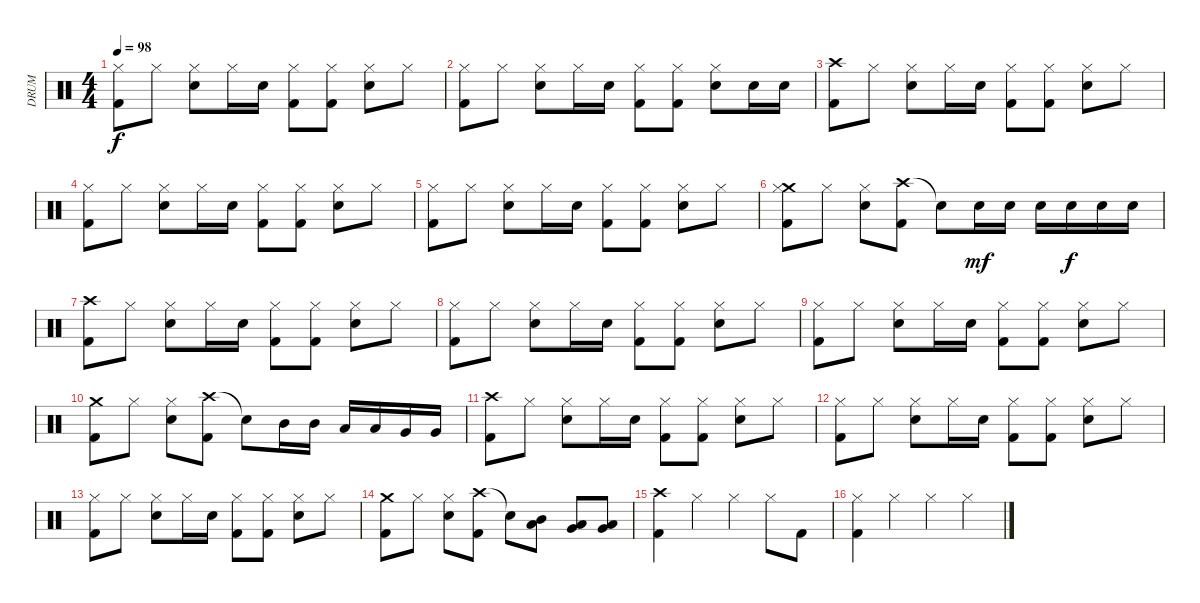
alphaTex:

\track ("DRUM" "DRUM") {instrument percussion}
\staff {score}
\articulation defaults
\ts (4 4)
\tempo 98
\clef neutral
\ks c
("Hi-Hat (closed)" "Kick (hit) 2").8{dy f} "Hi-Hat (closed)".8 ("Snare (hit) 2" "Hi-Hat (closed)").8 "Hi-Hat (closed)".16 "Snare (hit) 2".16 ("Hi-Hat (closed)" "Kick (hit) 2").8 ("Hi-Hat (closed)" "Kick (hit) 2").8 ("Snare (hit) 2" "Hi-Hat (closed)").8 "Hi-Hat (closed)".8 |
("Hi-Hat (closed)" "Kick (hit) 2").8 "Hi-Hat (closed)".8 ("Snare (hit) 2" "Hi-Hat (closed)").8 "Hi-Hat (closed)".16 "Snare (hit) 2".16 ("Hi-Hat (closed)" "Kick (hit) 2").8 ("Hi-Hat (closed)" "Kick (hit) 2").8 ("Snare (hit) 2" "Hi-Hat (closed)").8 "Snare (hit) 2".16 "Snare (hit) 2".16 |
("Crash high (hit)" "Kick (hit) 2").8 "Hi-Hat (closed)".8 ("Snare (hit) 2" "Hi-Hat (closed)").8 "Hi-Hat (closed)".16 "Snare (hit) 2".16 ("Hi-Hat (closed)" "Kick (hit) 2").8 ("Hi-Hat (closed)" "Kick (hit) 2").8 ("Snare (hit) 2" "Hi-Hat (closed)").8 "Hi-Hat (closed)".8 |
("Hi-Hat (closed)" "Kick (hit) 2").8 "Hi-Hat (closed)".8 ("Snare (hit) 2" "Hi-Hat (closed)").8 "Hi-Hat (closed)".16 "Snare (hit) 2".16 ("Hi-Hat (closed)" "Kick (hit) 2").8 ("Hi-Hat (closed)" "Kick (hit) 2").8 ("Snare (hit) 2" "Hi-Hat (closed)").8 "Hi-Hat (closed)".8 |
("Hi-Hat (closed)" "Kick (hit) 2").8 "Hi-Hat (closed)".8 ("Snare (hit) 2" "Hi-Hat (closed)").8 "Hi-Hat (closed)".16 "Snare (hit) 2".16 ("Hi-Hat (closed)" "Kick (hit) 2").8 ("Hi-Hat (closed)" "Kick (hit) 2").8 ("Snare (hit) 2" "Hi-Hat (closed)").8 "Hi-Hat (closed)".8 |
("Crash medium (hit)" "Hi-Hat (closed)" "Kick (hit) 2").8 "Hi-Hat (closed)".8 ("Snare (hit) 2" "Hi-Hat (closed)").8 ("Crash high (hit)" "Kick (hit) 2").8 "Snare (hit)"{t}.8 "Snare (hit) 2".16{dy mf} "Snare (hit) 2".16 "Snare (hit) 2".16 "Snare (hit) 2".16{dy f} "Snare (hit) 2".16 "Snare (hit) 2".16 |
("Crash high (hit)" "Kick (hit) 2").8 "Hi-Hat (closed)".8 ("Snare (hit) 2" "Hi-Hat (closed)").8 "Hi-Hat (closed)".16 "Snare (hit) 2".16 ("Hi-Hat (closed)" "Kick (hit) 2").8 ("Hi-Hat (closed)" "Kick (hit) 2").8 ("Snare (hit) 2" "Hi-Hat (closed)").8 "Hi-Hat (closed)".8 |
("Hi-Hat (closed)" "Kick (hit) 2").8 "Hi-Hat (closed)".8 ("Snare (hit) 2" "Hi-Hat (closed)").8 "Hi-Hat (closed)".16 "Snare (hit) 2".16 ("Hi-Hat (closed)" "Kick (hit) 2").8 ("Hi-Hat (closed)" "Kick (hit) 2").8 ("Snare (hit) 2" "Hi-Hat (closed)").8 "Hi-Hat (closed)".8 |
("Hi-Hat (closed)" "Kick (hit) 2").8 "Hi-Hat (closed)".8 ("Snare (hit) 2" "Hi-Hat (closed)").8 "Hi-Hat (closed)".16 "Snare (hit) 2".16 ("Hi-Hat (closed)" "Kick (hit) 2").8 ("Hi-Hat (closed)" "Kick (hit) 2").8 ("Snare (hit) 2" "Hi-Hat (closed)").8 "Hi-Hat (closed)".8 |
("Crash medium (hit)" "Kick (hit) 2").8 "Hi-Hat (closed)".8 ("Snare (hit) 2" "Hi-Hat (closed)").8 ("Crash high (hit)" "Kick (hit) 2").8 "Snare (hit)"{t}.8 "Mid Tom (hit)".16 "Mid Tom (hit)".16 "Low Tom (hit)".16 "Low Tom (hit)".16 "Very Low Tom (hit)".16 "Very Low Tom (hit)".16 |
("Crash high (hit)" "Kick (hit) 2").8 "Hi-Hat (closed)".8 ("Snare (hit) 2" "Hi-Hat (closed)").8 "Hi-Hat (closed)".16 "Snare (hit) 2".16 ("Hi-Hat (closed)" "Kick (hit) 2").8 ("Hi-Hat (closed)" "Kick (hit) 2").8 ("Snare (hit) 2" "Hi-Hat (closed)").8 "Hi-Hat (closed)".8 |
("Hi-Hat (closed)" "Kick (hit) 2").8 "Hi-Hat (closed)".8 ("Snare (hit) 2" "Hi-Hat (closed)").8 "Hi-Hat (closed)".16 "Snare (hit) 2".16 ("Hi-Hat (closed)" "Kick (hit) 2").8 ("Hi-Hat (closed)" "Kick (hit) 2").8 ("Snare (hit) 2" "Hi-Hat (closed)").8 "Hi-Hat (closed)".8 |
("Hi-Hat (closed)" "Kick (hit) 2").8 "Hi-Hat (closed)".8 ("Snare (hit) 2" "Hi-Hat (closed)").8 "Hi-Hat (closed)".16 "Snare (hit) 2".16 ("Hi-Hat (closed)" "Kick (hit) 2").8 ("Hi-Hat (closed)" "Kick (hit) 2").8 ("Snare (hit) 2" "Hi-Hat (closed)").8 "Hi-Hat (closed)".8 |
("Crash medium (hit)" "Kick (hit) 2").8 "Hi-Hat (closed)".8 ("Snare (hit) 2" "Hi-Hat (closed)").8 ("Crash high (hit)" "Kick (hit) 2").8 "Snare (hit)"{t}.8 ("Mid Tom (hit)" "Low Tom (hit)").8 ("Low Tom (hit)" "Very Low Tom (hit)").8 ("Very Low Tom (hit)" "Low Floor Tom (hit)").8 |
("Crash high (hit)" "Kick (hit) 2").4 "Hi-Hat (closed)".4 "Hi-Hat (closed)".4 "Hi-Hat (closed)".8 "Kick (hit) 2".8 |
("Hi-Hat (closed)" "Kick (hit) 2").4 "Hi-Hat (closed)".4 "Hi-Hat (closed)".4 "Hi-Hat (closed)".4
